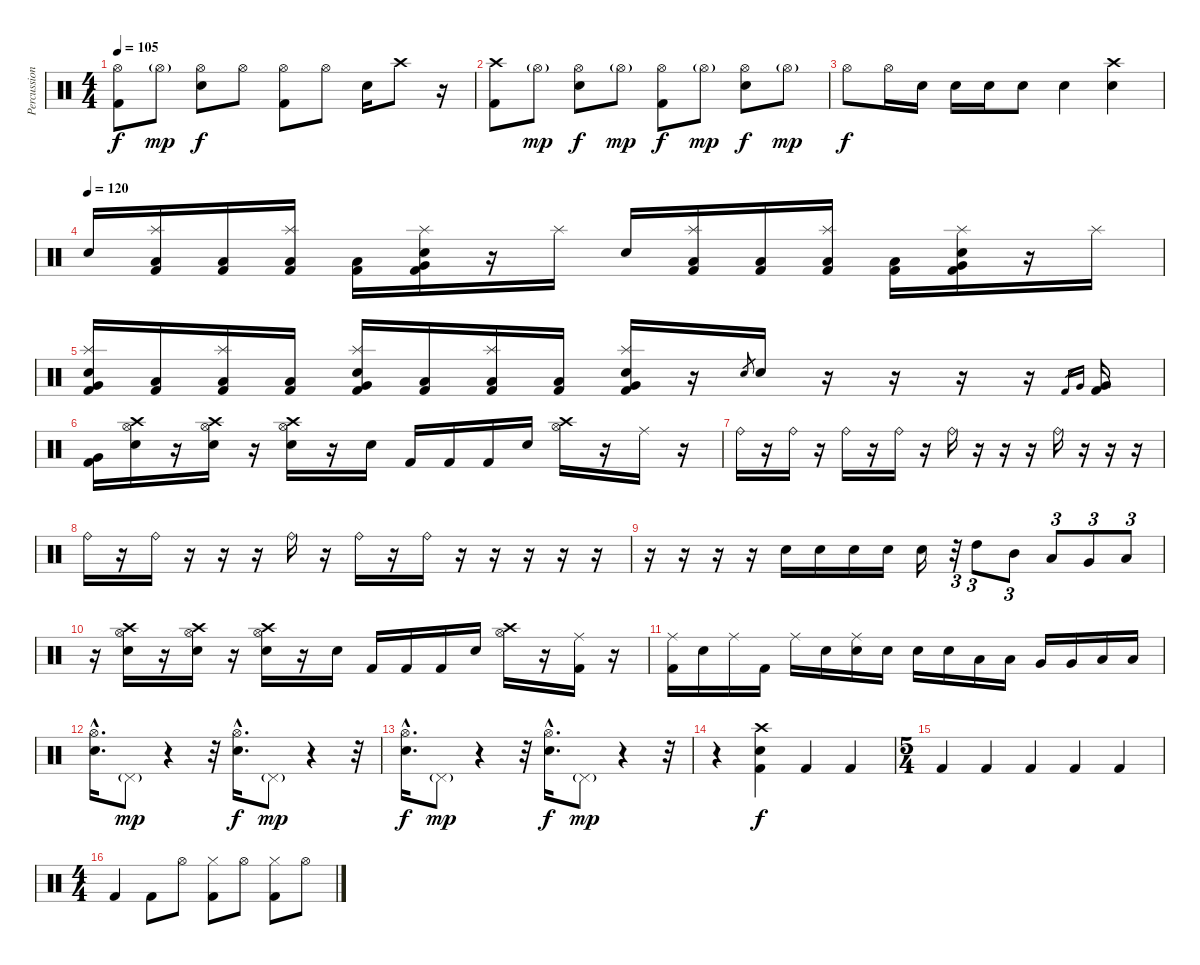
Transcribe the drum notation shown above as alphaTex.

\track ("Percussions" "Percussion") {instrument percussion}
\staff {score}
\articulation defaults
\ts (4 4)
\tempo 105
\clef neutral
\ks c
("Hi-Hat (open)" "Kick (hit) 2").8{dy f} "Hi-Hat (open)"{g}.8{dy mp} ("Hi-Hat (open)" "Snare (hit) 2").8{dy f} "Hi-Hat (open)".8 ("Hi-Hat (open)" "Kick (hit) 2").8 "Hi-Hat (open)".8 "Snare (hit) 2".16 "Crash high (hit)".8 r.16 |
("Crash high (hit)" "Kick (hit) 2").8 "Hi-Hat (open)"{g}.8{dy mp} ("Hi-Hat (open)" "Snare (hit) 2").8{dy f} "Hi-Hat (open)"{g}.8{dy mp} ("Hi-Hat (open)" "Kick (hit) 2").8{dy f} "Hi-Hat (open)"{g}.8{dy mp} ("Hi-Hat (open)" "Snare (hit) 2").8{dy f} "Hi-Hat (open)"{g}.8{dy mp} |
"Hi-Hat (open)".8{dy f} "Hi-Hat (open)".16 "Snare (hit) 2".16 "Snare (hit) 2".16 "Snare (hit) 2".16 "Snare (hit) 2".8 "Snare (hit) 2".4 ("Snare (hit) 2" "Crash high (hit)").4 |
\tempo (120)
"Snare (hit) 2".16 ("Splash (hit)" "Low Floor Tom (hit)" "Kick (hit) 2").16 ("Low Floor Tom (hit)" "Kick (hit) 2").16 ("Splash (hit)" "Low Floor Tom (hit)" "Kick (hit) 2").16 ("Low Floor Tom (hit)" "Kick (hit) 2").16 ("Splash (hit)" "Very Low Tom (hit)" "Kick (hit) 2" "Electric Snare (hit)").16 r.16 "Splash (hit)".16 "Snare (hit) 2".16 ("Splash (hit)" "Low Floor Tom (hit)" "Kick (hit) 2").16 ("Low Floor Tom (hit)" "Kick (hit) 2").16 ("Splash (hit)" "Low Floor Tom (hit)" "Kick (hit) 2").16 ("Low Floor Tom (hit)" "Kick (hit) 2").16 ("Splash (hit)" "Very Low Tom (hit)" "Kick (hit) 2" "Electric Snare (hit)").16 r.16 "Splash (hit)".16 |
("Splash (hit)" "Very Low Tom (hit)" "Kick (hit) 2" "Electric Snare (hit)").16 ("Low Floor Tom (hit)" "Kick (hit) 2").16 ("Splash (hit)" "Low Floor Tom (hit)" "Kick (hit) 2").16 ("Low Floor Tom (hit)" "Kick (hit) 2").16 ("Splash (hit)" "Very Low Tom (hit)" "Kick (hit) 2" "Electric Snare (hit)").16 ("Low Floor Tom (hit)" "Kick (hit) 2").16 ("Splash (hit)" "Low Floor Tom (hit)" "Kick (hit) 2").16 ("Low Floor Tom (hit)" "Kick (hit) 2").16 ("Splash (hit)" "Very Low Tom (hit)" "Kick (hit) 2" "Electric Snare (hit)").16 r.16 "Electric Snare (hit)".8{gr} "Electric Snare (hit)".16 r.16 r.16 r.16 r.16 "Kick (hit) 2".16{gr} "Very Low Tom (hit)".16{gr} ("Kick (hit) 2" "Very Low Tom (hit)").16 |
("Kick (hit) 2" "Very Low Tom (hit)").16 ("Hi-Hat (open)" "Crash high (hit)" "Snare (hit) 2").16 r.16 ("Hi-Hat (open)" "Crash high (hit)" "Snare (hit) 2").16 r.16 ("Hi-Hat (open)" "Crash high (hit)" "Snare (hit) 2").16 r.16 "Snare (hit) 2".16 "Kick (hit) 2".16 "Kick (hit) 2".16 "Kick (hit) 2".16 "Snare (hit) 2".16 ("Hi-Hat (open)" "Crash high (hit)").16 r.16 "Ride (middle)".16 r.16 |
"Ride (bell)".16 r.16 "Ride (bell)".16 r.16 "Ride (bell)".16 r.16 "Ride (bell)".16 r.16 "Ride (bell)".16 r.16 r.16 r.16 "Ride (bell)".16 r.16 r.16 r.16 |
"Ride (bell)".16 r.16 "Ride (bell)".16 r.16 r.16 r.16 "Ride (bell)".16 r.16 "Ride (bell)".16 r.16 "Ride (bell)".16 r.16 r.16 r.16 r.16 r.16 |
r.16 r.16 r.16 r.16 "Snare (hit) 2".16 "Snare (hit) 2".16 "Snare (hit) 2".16 "Snare (hit) 2".16 "Snare (hit) 2".16 r.32{tu (3 2)} "High Tom (hit)".8{tu (3 2)} "Mid Tom (hit)".8{tu (3 2)} "Low Tom (hit)".8{tu (3 2)} "Very Low Tom (hit)".8{tu (3 2)} "Low Floor Tom (hit)".8{tu (3 2)} |
r.16 ("Hi-Hat (open)" "Crash high (hit)" "Snare (hit) 2").16 r.16 ("Hi-Hat (open)" "Crash high (hit)" "Snare (hit) 2").16 r.16 ("Hi-Hat (open)" "Crash high (hit)" "Snare (hit) 2").16 r.16 "Snare (hit) 2".16 "Kick (hit) 2".16 "Kick (hit) 2".16 "Kick (hit) 2".16 "Snare (hit) 2".16 ("Hi-Hat (open)" "Crash high (hit)").16 r.16 ("Ride (middle)" "Kick (hit) 2").16 r.16 |
("Ride (middle)" "Kick (hit) 2").16 "Snare (hit) 2".16 "Ride (middle)".16 "Kick (hit) 2".16 "Ride (middle)".16 "Snare (hit) 2".16 ("Snare (hit) 2" "Ride (middle)").16 "Snare (hit) 2".16 "Snare (hit) 2".16 "Snare (hit) 2".16 "Low Tom (hit)".16 "Low Tom (hit)".16 "Very Low Tom (hit)".16 "Very Low Tom (hit)".16 "Low Floor Tom (hit)".16 "Low Floor Tom (hit)".16 |
("Hi-Hat (open)"{hac} "Snare (hit) 2"{hac}).16{d} "Pedal Hi-Hat (hit)"{g}.8{dy mp} r.4 r.32 ("Hi-Hat (open)"{hac} "Snare (hit) 2"{hac}).16{d dy f} "Pedal Hi-Hat (hit)"{g}.8{dy mp} r.4 r.32 |
("Hi-Hat (open)"{hac} "Snare (hit) 2"{hac}).16{d dy f} "Pedal Hi-Hat (hit)"{g}.8{dy mp} r.4 r.32 ("Hi-Hat (open)"{hac} "Snare (hit) 2"{hac}).16{d dy f} "Pedal Hi-Hat (hit)"{g}.8{dy mp} r.4 r.32 |
r.4 ("Crash high (hit)" "Snare (hit) 2" "Kick (hit) 2").4{dy f} "Kick (hit) 2".4 "Kick (hit) 2".4 |
\ts (5 4)
"Kick (hit) 2".4 "Kick (hit) 2".4 "Kick (hit) 2".4 "Kick (hit) 2".4 "Kick (hit) 2".4 |
\ts (4 4)
"Kick (hit) 2".4 "Kick (hit) 2".8 "Hi-Hat (open)".8 ("Kick (hit) 2" "Hi-Hat (closed)").8 "Hi-Hat (open)".8 ("Kick (hit) 2" "Hi-Hat (closed)").8 "Hi-Hat (open)".8
